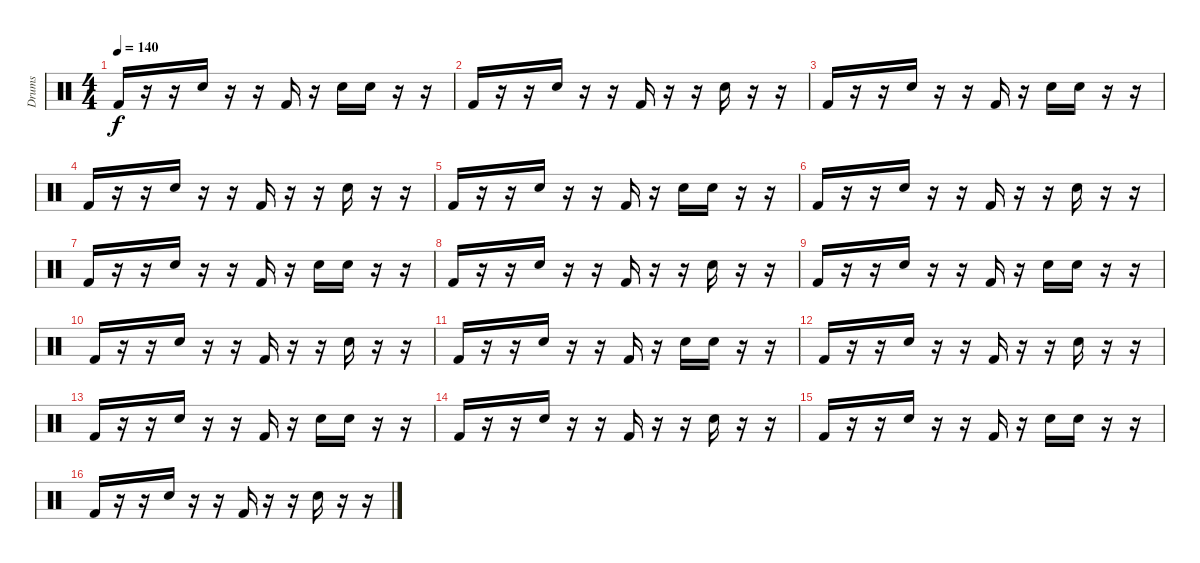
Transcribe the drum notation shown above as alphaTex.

\track ("Drums" "Drums") {instrument percussion}
\staff {score}
\articulation defaults
\ts (4 4)
\tempo 140
\clef neutral
\ks c "Kick (hit) 2".16{dy f}
r.16 r.16 "Snare (hit) 2".16 r.16 r.16 "Kick (hit) 2".16 r.16 "Snare (hit) 2".16 "Snare (hit) 2".16 r.16 r.16 |
"Kick (hit) 2".16 r.16 r.16 "Snare (hit) 2".16 r.16 r.16 "Kick (hit) 2".16 r.16 r.16 "Snare (hit) 2".16 r.16 r.16 |
"Kick (hit) 2".16 r.16 r.16 "Snare (hit) 2".16 r.16 r.16 "Kick (hit) 2".16 r.16 "Snare (hit) 2".16 "Snare (hit) 2".16 r.16 r.16 |
"Kick (hit) 2".16 r.16 r.16 "Snare (hit) 2".16 r.16 r.16 "Kick (hit) 2".16 r.16 r.16 "Snare (hit) 2".16 r.16 r.16 |
"Kick (hit) 2".16 r.16 r.16 "Snare (hit) 2".16 r.16 r.16 "Kick (hit) 2".16 r.16 "Snare (hit) 2".16 "Snare (hit) 2".16 r.16 r.16 |
"Kick (hit) 2".16 r.16 r.16 "Snare (hit) 2".16 r.16 r.16 "Kick (hit) 2".16 r.16 r.16 "Snare (hit) 2".16 r.16 r.16 |
"Kick (hit) 2".16 r.16 r.16 "Snare (hit) 2".16 r.16 r.16 "Kick (hit) 2".16 r.16 "Snare (hit) 2".16 "Snare (hit) 2".16 r.16 r.16 |
"Kick (hit) 2".16 r.16 r.16 "Snare (hit) 2".16 r.16 r.16 "Kick (hit) 2".16 r.16 r.16 "Snare (hit) 2".16 r.16 r.16 |
"Kick (hit) 2".16 r.16 r.16 "Snare (hit) 2".16 r.16 r.16 "Kick (hit) 2".16 r.16 "Snare (hit) 2".16 "Snare (hit) 2".16 r.16 r.16 |
"Kick (hit) 2".16 r.16 r.16 "Snare (hit) 2".16 r.16 r.16 "Kick (hit) 2".16 r.16 r.16 "Snare (hit) 2".16 r.16 r.16 |
"Kick (hit) 2".16 r.16 r.16 "Snare (hit) 2".16 r.16 r.16 "Kick (hit) 2".16 r.16 "Snare (hit) 2".16 "Snare (hit) 2".16 r.16 r.16 |
"Kick (hit) 2".16 r.16 r.16 "Snare (hit) 2".16 r.16 r.16 "Kick (hit) 2".16 r.16 r.16 "Snare (hit) 2".16 r.16 r.16 |
"Kick (hit) 2".16 r.16 r.16 "Snare (hit) 2".16 r.16 r.16 "Kick (hit) 2".16 r.16 "Snare (hit) 2".16 "Snare (hit) 2".16 r.16 r.16 |
"Kick (hit) 2".16 r.16 r.16 "Snare (hit) 2".16 r.16 r.16 "Kick (hit) 2".16 r.16 r.16 "Snare (hit) 2".16 r.16 r.16 |
"Kick (hit) 2".16 r.16 r.16 "Snare (hit) 2".16 r.16 r.16 "Kick (hit) 2".16 r.16 "Snare (hit) 2".16 "Snare (hit) 2".16 r.16 r.16 |
"Kick (hit) 2".16 r.16 r.16 "Snare (hit) 2".16 r.16 r.16 "Kick (hit) 2".16 r.16 r.16 "Snare (hit) 2".16 r.16 r.16
